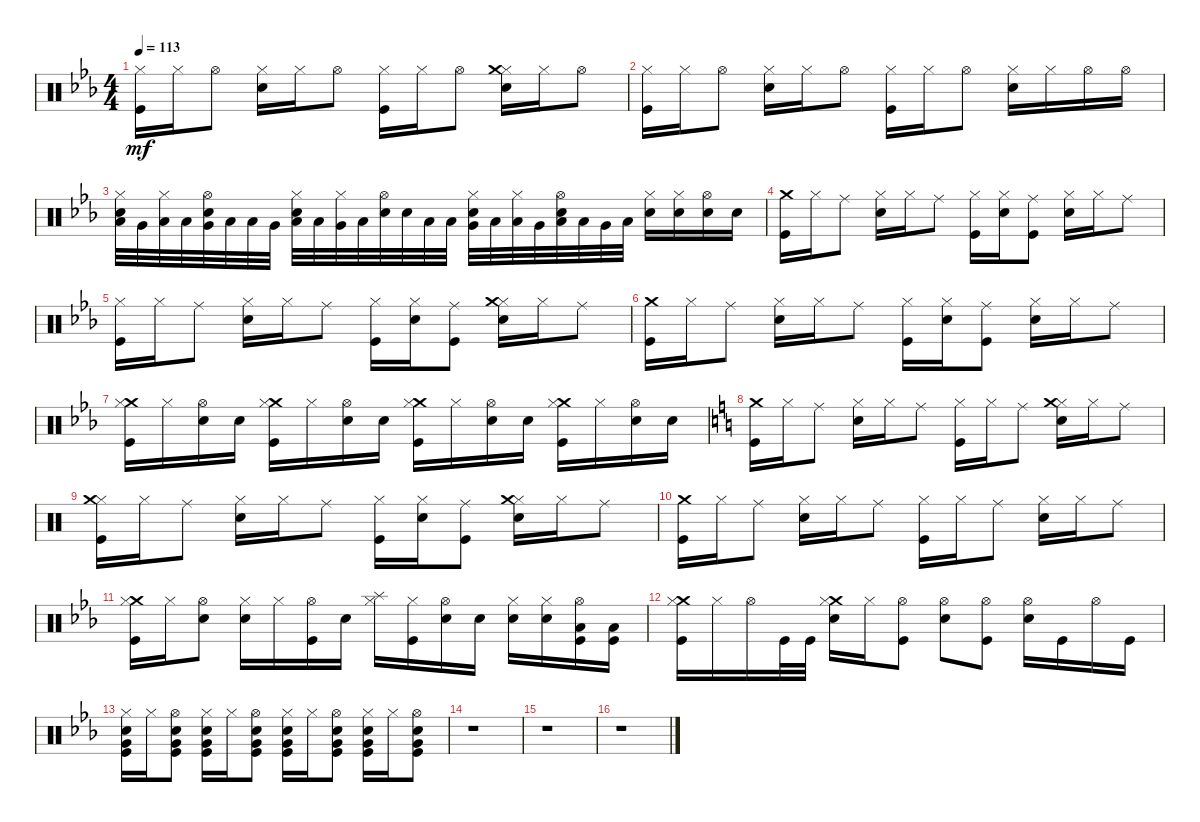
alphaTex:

\track "" {instrument percussion}
\staff {score}
\articulation defaults
\ts (4 4)
\tempo 113
\clef neutral
\ks eb
("Hi-Hat (closed)" "Kick (hit)").16{dy mf} "Hi-Hat (closed)".16 "Hi-Hat (open)".8 ("Hi-Hat (closed)" "Snare (hit) 2").16 "Hi-Hat (closed)".16 "Hi-Hat (open)".8 ("Hi-Hat (closed)" "Kick (hit)").16 "Hi-Hat (closed)".16 "Hi-Hat (open)".8 ("Hi-Hat (closed)" "Snare (hit) 2" "Crash medium (hit)").16 "Hi-Hat (closed)".16 "Hi-Hat (open)".8 |
("Hi-Hat (closed)" "Kick (hit)").16 "Hi-Hat (closed)".16 "Hi-Hat (open)".8 ("Hi-Hat (closed)" "Snare (hit) 2").16 "Hi-Hat (closed)".16 "Hi-Hat (open)".8 ("Hi-Hat (closed)" "Kick (hit)").16 "Hi-Hat (closed)".16 "Hi-Hat (open)".8 ("Hi-Hat (closed)" "Snare (hit) 2").16 "Hi-Hat (closed)".16 "Hi-Hat (open)".16 "Hi-Hat (open)".16 |
("Low Tom (hit)" "Snare (hit) 2" "Hi-Hat (closed)").32 "Very Low Tom (hit)".32 ("Low Floor Tom (hit)" "Hi-Hat (closed)").32 "Low Tom (hit)".32 ("Very Low Tom (hit)" "Snare (hit) 2" "Hi-Hat (open)").32 "Low Floor Tom (hit)".32 "Low Tom (hit)".32 "Very Low Tom (hit)".32 ("Low Floor Tom (hit)" "Snare (hit) 2" "Hi-Hat (closed)").32 "Low Tom (hit)".32 ("Very Low Tom (hit)" "Hi-Hat (closed)").32 "Low Floor Tom (hit)".32 ("Snare (hit) 2" "Hi-Hat (open)").32 "Snare (hit) 2".32 "Low Floor Tom (hit)".32 "Low Tom (hit)".32 ("Very Low Tom (hit)" "Snare (hit) 2" "Hi-Hat (closed)").32 "Low Floor Tom (hit)".32 ("Low Tom (hit)" "Hi-Hat (closed)").32 "Very Low Tom (hit)".32 ("Low Floor Tom (hit)" "Snare (hit) 2" "Hi-Hat (open)").32 "Low Tom (hit)".32 "Very Low Tom (hit)".32 "Low Floor Tom (hit)".32 ("Snare (hit) 2" "Hi-Hat (closed)").16 ("Snare (hit) 2" "Hi-Hat (closed)").16 ("Snare (hit) 2" "Hi-Hat (open)").16 "Snare (hit) 2".16 |
("Crash medium (hit)" "Kick (hit)").16 "Hi-Hat (closed)".16 "Ride (middle)".8 ("Snare (hit) 2" "Hi-Hat (closed)").16 "Hi-Hat (closed)".16 "Ride (middle)".8 ("Kick (hit)" "Hi-Hat (closed)").16 ("Snare (hit) 2" "Hi-Hat (closed)").16 ("Ride (middle)" "Kick (hit)").8 ("Snare (hit) 2" "Hi-Hat (closed)").16 "Hi-Hat (closed)".16 "Ride (middle)".8 |
("Kick (hit)" "Hi-Hat (closed)").16 "Hi-Hat (closed)".16 "Ride (middle)".8 ("Snare (hit) 2" "Hi-Hat (closed)").16 "Hi-Hat (closed)".16 "Ride (middle)".8 ("Kick (hit)" "Hi-Hat (closed)").16 ("Snare (hit) 2" "Hi-Hat (closed)").16 ("Ride (middle)" "Kick (hit)").8 ("Snare (hit) 2" "Hi-Hat (closed)" "Crash medium (hit)").16 "Hi-Hat (closed)".16 "Ride (middle)".8 |
("Crash medium (hit)" "Kick (hit)").16 "Hi-Hat (closed)".16 "Ride (middle)".8 ("Snare (hit) 2" "Hi-Hat (closed)").16 "Hi-Hat (closed)".16 "Ride (middle)".8 ("Kick (hit)" "Hi-Hat (closed)").16 ("Snare (hit) 2" "Hi-Hat (closed)").16 ("Ride (middle)" "Kick (hit)").8 ("Snare (hit) 2" "Hi-Hat (closed)").16 "Hi-Hat (closed)".16 "Ride (middle)".8 |
("Kick (hit)" "Crash medium (hit)" "Hi-Hat (closed)").16 "Hi-Hat (closed)".16 ("Snare (hit) 2" "Hi-Hat (open)").16 "Snare (hit) 2".16 ("Kick (hit)" "Crash medium (hit)" "Hi-Hat (closed)").16 "Hi-Hat (closed)".16 ("Snare (hit) 2" "Hi-Hat (open)").16 "Snare (hit) 2".16 ("Kick (hit)" "Crash medium (hit)" "Hi-Hat (closed)").16 "Hi-Hat (closed)".16 ("Snare (hit) 2" "Hi-Hat (open)").16 "Snare (hit) 2".16 ("Kick (hit)" "Crash medium (hit)" "Hi-Hat (closed)").16 "Hi-Hat (closed)".16 ("Snare (hit) 2" "Hi-Hat (open)").16 "Snare (hit) 2".16 |
\ks c
("Crash medium (hit)" "Kick (hit)").16 "Hi-Hat (closed)".16 "Ride (middle)".8 ("Snare (hit) 2" "Hi-Hat (closed)").16 "Hi-Hat (closed)".16 "Ride (middle)".8 ("Kick (hit)" "Hi-Hat (closed)").16 "Hi-Hat (closed)".16 "Ride (middle)".8 ("Snare (hit) 2" "Hi-Hat (closed)" "Crash medium (hit)").16 "Hi-Hat (closed)".16 "Ride (middle)".8 |
("Kick (hit)" "Hi-Hat (closed)" "Crash medium (hit)").16 "Hi-Hat (closed)".16 "Ride (middle)".8 ("Snare (hit) 2" "Hi-Hat (closed)").16 "Hi-Hat (closed)".16 "Ride (middle)".8 ("Kick (hit)" "Hi-Hat (closed)").16 ("Snare (hit) 2" "Hi-Hat (closed)").16 ("Ride (middle)" "Kick (hit)").8 ("Snare (hit) 2" "Hi-Hat (closed)" "Crash medium (hit)").16 "Hi-Hat (closed)".16 "Ride (middle)".8 |
("Crash medium (hit)" "Kick (hit)").16 "Hi-Hat (closed)".16 "Ride (middle)".8 ("Snare (hit) 2" "Hi-Hat (closed)").16 "Hi-Hat (closed)".16 "Ride (middle)".8 ("Kick (hit)" "Hi-Hat (closed)").16 "Hi-Hat (closed)".16 "Ride (middle)".8 ("Snare (hit) 2" "Hi-Hat (closed)").16 "Hi-Hat (closed)".16 "Ride (middle)".8 |
\ks eb
("Kick (hit)" "Crash medium (hit)" "Hi-Hat (closed)").16 "Hi-Hat (closed)".16 ("Snare (hit) 2" "Hi-Hat (open)").8 ("Snare (hit) 2" "Hi-Hat (closed)").16 "Hi-Hat (closed)".16 ("Kick (hit)" "Hi-Hat (open)").16 "Snare (hit) 2".16 ("Splash (hit)" "Hi-Hat (closed)").16 ("Kick (hit)" "Hi-Hat (closed)").16 ("Snare (hit) 2" "Hi-Hat (open)").16 "Snare (hit) 2".16 ("Snare (hit) 2" "Hi-Hat (closed)").16 ("Snare (hit) 2" "Hi-Hat (closed)").16 ("Kick (hit)" "Low Floor Tom (hit)" "Hi-Hat (open)").16 ("Kick (hit)" "Low Floor Tom (hit)").16 |
("Kick (hit)" "Crash medium (hit)" "Hi-Hat (closed)").16 "Hi-Hat (closed)".16 "Hi-Hat (open)".16 "Kick (hit)".32 "Kick (hit)".32 ("Snare (hit) 2" "Crash medium (hit)" "Hi-Hat (closed)").16 "Hi-Hat (closed)".16 ("Kick (hit)" "Hi-Hat (open)").8 ("Snare (hit) 2" "Hi-Hat (open)").8 ("Kick (hit)" "Hi-Hat (open)").8 ("Snare (hit) 2" "Hi-Hat (open)").16 "Kick (hit)".16 "Hi-Hat (open)".16 "Kick (hit)".16 |
("Snare (hit) 2" "Kick (hit)" "Very Low Tom (hit)" "Hi-Hat (closed)").16 "Hi-Hat (closed)".16 ("Snare (hit) 2" "Kick (hit)" "Very Low Tom (hit)" "Hi-Hat (open)").8 ("Snare (hit) 2" "Kick (hit)" "Very Low Tom (hit)" "Hi-Hat (closed)").16 "Hi-Hat (closed)".16 ("Snare (hit) 2" "Kick (hit)" "Very Low Tom (hit)" "Hi-Hat (open)").8 ("Snare (hit) 2" "Kick (hit)" "Very Low Tom (hit)" "Hi-Hat (closed)").16 "Hi-Hat (closed)".16 ("Snare (hit) 2" "Kick (hit)" "Very Low Tom (hit)" "Hi-Hat (open)").8 ("Snare (hit) 2" "Kick (hit)" "Very Low Tom (hit)" "Hi-Hat (closed)").16 "Hi-Hat (closed)".16 ("Snare (hit) 2" "Kick (hit)" "Very Low Tom (hit)" "Hi-Hat (open)").8 |
r.1 |
r.1 |
r.1
